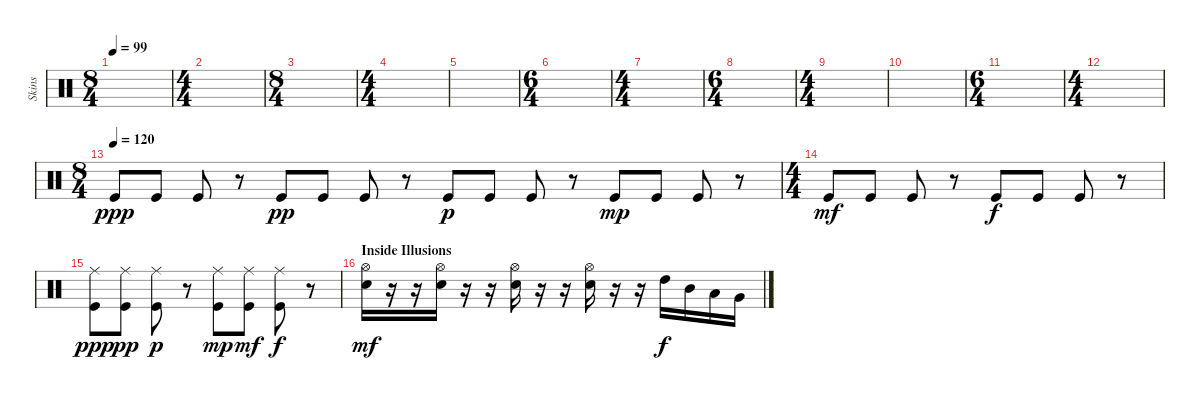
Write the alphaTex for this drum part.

\track ("Skins" "Skins") {instrument percussion}
\staff {score}
\articulation defaults
\ts (8 4)
\tempo 99
\clef neutral
\ks c
|
\ts (4 4)
|
\ts (8 4)
|
\ts (4 4)
|
|
\ts (6 4)
|
\ts (4 4)
|
\ts (6 4)
|
\ts (4 4)
|
|
\ts (6 4)
|
\ts (4 4)
|
\ts (8 4)
\tempo (120)
"Kick (hit)".8{dy ppp} "Kick (hit)".8 "Kick (hit)".8 r.8 "Kick (hit)".8{dy pp} "Kick (hit)".8 "Kick (hit)".8 r.8 "Kick (hit)".8{dy p} "Kick (hit)".8 "Kick (hit)".8 r.8 "Kick (hit)".8{dy mp} "Kick (hit)".8 "Kick (hit)".8 r.8 |
\ts (4 4)
"Kick (hit)".8{dy mf} "Kick (hit)".8 "Kick (hit)".8 r.8 "Kick (hit)".8{dy f} "Kick (hit)".8 "Kick (hit)".8 r.8 |
("Ride (middle)" "Kick (hit)").8{dy ppp} ("Ride (middle)" "Kick (hit)").8{dy pp} ("Ride (middle)" "Kick (hit)").8{dy p} r.8 ("Ride (middle)" "Kick (hit)").8{dy mp} ("Ride (middle)" "Kick (hit)").8{dy mf} ("Ride (middle)" "Kick (hit)").8{dy f} r.8 |
\section ("" "Inside Illusions")
("Hi-Hat (open)" "Electric Snare (hit)").16{dy mf volume 12} r.16 r.16 ("Hi-Hat (open)" "Electric Snare (hit)").16 r.16 r.16 ("Hi-Hat (open)" "Electric Snare (hit)").16 r.16 r.16 ("Hi-Hat (open)" "Electric Snare (hit)").16 r.16 r.16 "High Tom (hit)".16{dy f} "Mid Tom (hit)".16 "Low Tom (hit)".16 "Very Low Tom (hit)".16
